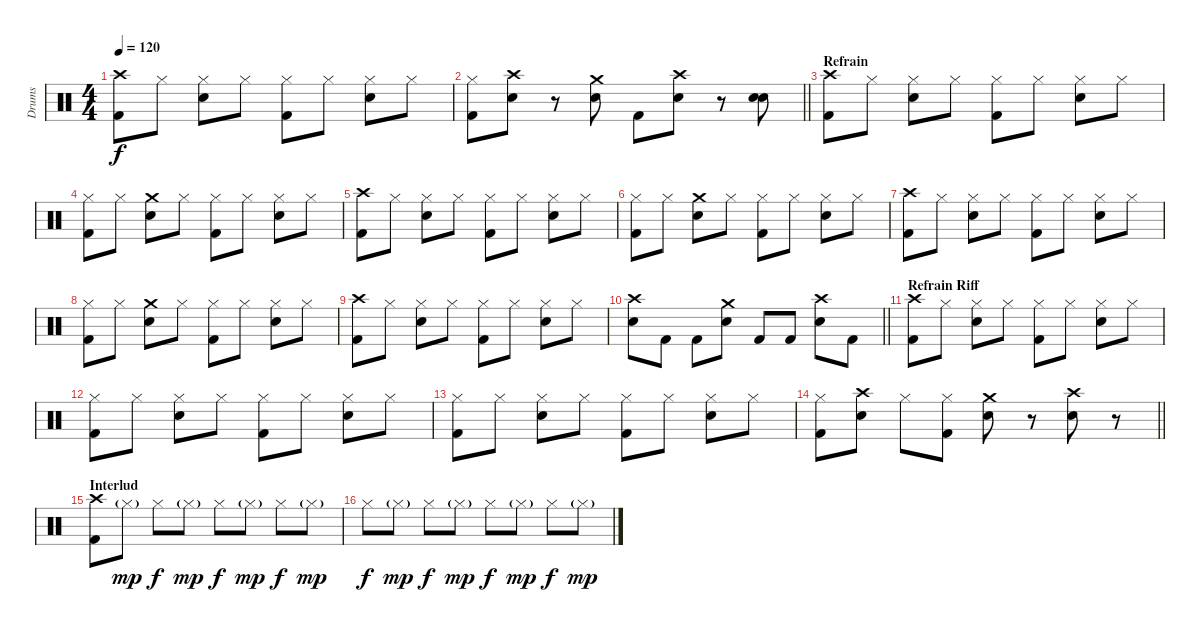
\track ("Drums" "Drums") {instrument percussion}
\staff {score}
\articulation defaults
\ts (4 4)
\tempo 120
\clef neutral
\ks c
("Crash high (hit)" "Kick (hit) 2").8{dy f} "Hi-Hat (closed)".8 ("Hi-Hat (closed)" "Snare (hit) 2").8 "Hi-Hat (closed)".8 ("Hi-Hat (closed)" "Kick (hit) 2").8 "Hi-Hat (closed)".8 ("Hi-Hat (closed)" "Snare (hit) 2").8 "Hi-Hat (closed)".8 |
\barLineRight lightlight
("Hi-Hat (closed)" "Kick (hit) 2").8 ("Crash high (hit)" "Snare (hit) 2").8 r.8 ("Crash medium (hit)" "Snare (hit) 2").8 "Kick (hit) 2".8 ("Crash high (hit)" "Snare (hit) 2").8 r.8 ("Snare (hit) 2" "Snare (hit) 2").8 |
\section ("" "Refrain")
("Crash high (hit)" "Kick (hit) 2").8 "Hi-Hat (closed)".8 ("Hi-Hat (closed)" "Snare (hit) 2").8 "Hi-Hat (closed)".8 ("Hi-Hat (closed)" "Kick (hit) 2").8 "Hi-Hat (closed)".8 ("Hi-Hat (closed)" "Snare (hit) 2").8 "Hi-Hat (closed)".8 |
("Hi-Hat (closed)" "Kick (hit) 2").8 "Hi-Hat (closed)".8 ("Crash medium (hit)" "Snare (hit) 2").8 "Hi-Hat (closed)".8 ("Hi-Hat (closed)" "Kick (hit) 2").8 "Hi-Hat (closed)".8 ("Hi-Hat (closed)" "Snare (hit) 2").8 "Hi-Hat (closed)".8 |
("Crash high (hit)" "Kick (hit) 2").8 "Hi-Hat (closed)".8 ("Hi-Hat (closed)" "Snare (hit) 2").8 "Hi-Hat (closed)".8 ("Hi-Hat (closed)" "Kick (hit) 2").8 "Hi-Hat (closed)".8 ("Hi-Hat (closed)" "Snare (hit) 2").8 "Hi-Hat (closed)".8 |
("Hi-Hat (closed)" "Kick (hit) 2").8 "Hi-Hat (closed)".8 ("Crash medium (hit)" "Snare (hit) 2").8 "Hi-Hat (closed)".8 ("Hi-Hat (closed)" "Kick (hit) 2").8 "Hi-Hat (closed)".8 ("Hi-Hat (closed)" "Snare (hit) 2").8 "Hi-Hat (closed)".8 |
("Crash high (hit)" "Kick (hit) 2").8 "Hi-Hat (closed)".8 ("Hi-Hat (closed)" "Snare (hit) 2").8 "Hi-Hat (closed)".8 ("Hi-Hat (closed)" "Kick (hit) 2").8 "Hi-Hat (closed)".8 ("Hi-Hat (closed)" "Snare (hit) 2").8 "Hi-Hat (closed)".8 |
("Hi-Hat (closed)" "Kick (hit) 2").8 "Hi-Hat (closed)".8 ("Crash medium (hit)" "Snare (hit) 2").8 "Hi-Hat (closed)".8 ("Hi-Hat (closed)" "Kick (hit) 2").8 "Hi-Hat (closed)".8 ("Hi-Hat (closed)" "Snare (hit) 2").8 "Hi-Hat (closed)".8 |
("Crash high (hit)" "Kick (hit) 2").8 "Hi-Hat (closed)".8 ("Hi-Hat (closed)" "Snare (hit) 2").8 "Hi-Hat (closed)".8 ("Hi-Hat (closed)" "Kick (hit) 2").8 "Hi-Hat (closed)".8 ("Hi-Hat (closed)" "Snare (hit) 2").8 "Hi-Hat (closed)".8 |
\barLineRight lightlight
("Crash high (hit)" "Snare (hit) 2").8 "Kick (hit) 2".8 "Kick (hit) 2".8 ("Crash medium (hit)" "Snare (hit) 2").8 "Kick (hit) 2".8 "Kick (hit) 2".8 ("Crash high (hit)" "Snare (hit) 2").8 "Kick (hit) 2".8 |
\section ("" "Refrain Riff")
("Crash high (hit)" "Kick (hit) 2").8 "Hi-Hat (closed)".8 ("Hi-Hat (closed)" "Snare (hit) 2").8 "Hi-Hat (closed)".8 ("Hi-Hat (closed)" "Kick (hit) 2").8 "Hi-Hat (closed)".8 ("Hi-Hat (closed)" "Snare (hit) 2").8 "Hi-Hat (closed)".8 |
("Hi-Hat (closed)" "Kick (hit) 2").8 "Hi-Hat (closed)".8 ("Hi-Hat (closed)" "Snare (hit) 2").8 "Hi-Hat (closed)".8 ("Hi-Hat (closed)" "Kick (hit) 2").8 "Hi-Hat (closed)".8 ("Hi-Hat (closed)" "Snare (hit) 2").8 "Hi-Hat (closed)".8 |
("Hi-Hat (closed)" "Kick (hit) 2").8 "Hi-Hat (closed)".8 ("Hi-Hat (closed)" "Snare (hit) 2").8 "Hi-Hat (closed)".8 ("Hi-Hat (closed)" "Kick (hit) 2").8 "Hi-Hat (closed)".8 ("Hi-Hat (closed)" "Snare (hit) 2").8 "Hi-Hat (closed)".8 |
\barLineRight lightlight
("Hi-Hat (closed)" "Kick (hit) 2").8 ("Crash high (hit)" "Snare (hit) 2").8 "Hi-Hat (closed)".8 ("Hi-Hat (closed)" "Kick (hit) 2").8 ("Crash medium (hit)" "Snare (hit) 2").8 r.8 ("Crash high (hit)" "Snare (hit) 2").8 r.8 |
\section ("" "Interlud")
("Crash high (hit)" "Kick (hit) 2").8 "Hi-Hat (closed)"{g}.8{dy mp} "Hi-Hat (closed)".8{dy f} "Hi-Hat (closed)"{g}.8{dy mp} "Hi-Hat (closed)".8{dy f} "Hi-Hat (closed)"{g}.8{dy mp} "Hi-Hat (closed)".8{dy f} "Hi-Hat (closed)"{g}.8{dy mp} |
"Hi-Hat (closed)".8{dy f} "Hi-Hat (closed)"{g}.8{dy mp} "Hi-Hat (closed)".8{dy f} "Hi-Hat (closed)"{g}.8{dy mp} "Hi-Hat (closed)".8{dy f} "Hi-Hat (closed)"{g}.8{dy mp} "Hi-Hat (closed)".8{dy f} "Hi-Hat (closed)"{g}.8{dy mp}
